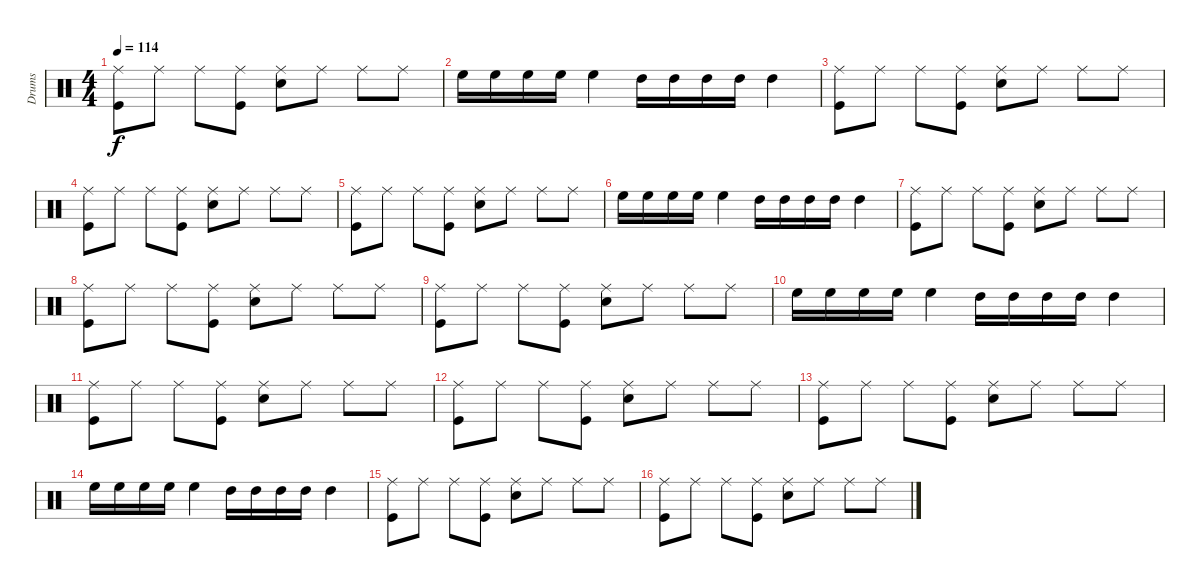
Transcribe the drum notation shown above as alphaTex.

\track ("Drums" "Drums") {instrument percussion}
\staff {score}
\articulation defaults
\ts (4 4)
\tempo 114
\clef neutral
\ks c
("Ride (middle)" "Kick (hit)").8{dy f} "Ride (middle)".8 "Ride (middle)".8 ("Ride (middle)" "Kick (hit)").8 ("Ride (middle)" "Snare (hit) 2").8 "Ride (middle)".8 "Ride (middle)".8 "Ride (middle)".8 |
"High Floor Tom (hit)".16 "High Floor Tom (hit)".16 "High Floor Tom (hit)".16 "High Floor Tom (hit)".16 "High Floor Tom (hit)".4 "High Tom (hit)".16 "High Tom (hit)".16 "High Tom (hit)".16 "High Tom (hit)".16 "High Tom (hit)".4 |
("Ride (middle)" "Kick (hit)").8 "Ride (middle)".8 "Ride (middle)".8 ("Ride (middle)" "Kick (hit)").8 ("Ride (middle)" "Snare (hit) 2").8 "Ride (middle)".8 "Ride (middle)".8 "Ride (middle)".8 |
("Ride (middle)" "Kick (hit)").8 "Ride (middle)".8 "Ride (middle)".8 ("Ride (middle)" "Kick (hit)").8 ("Ride (middle)" "Snare (hit) 2").8 "Ride (middle)".8 "Ride (middle)".8 "Ride (middle)".8 |
("Ride (middle)" "Kick (hit)").8 "Ride (middle)".8 "Ride (middle)".8 ("Ride (middle)" "Kick (hit)").8 ("Ride (middle)" "Snare (hit) 2").8 "Ride (middle)".8 "Ride (middle)".8 "Ride (middle)".8 |
"High Floor Tom (hit)".16 "High Floor Tom (hit)".16 "High Floor Tom (hit)".16 "High Floor Tom (hit)".16 "High Floor Tom (hit)".4 "High Tom (hit)".16 "High Tom (hit)".16 "High Tom (hit)".16 "High Tom (hit)".16 "High Tom (hit)".4 |
("Ride (middle)" "Kick (hit)").8 "Ride (middle)".8 "Ride (middle)".8 ("Ride (middle)" "Kick (hit)").8 ("Ride (middle)" "Snare (hit) 2").8 "Ride (middle)".8 "Ride (middle)".8 "Ride (middle)".8 |
("Ride (middle)" "Kick (hit)").8 "Ride (middle)".8 "Ride (middle)".8 ("Ride (middle)" "Kick (hit)").8 ("Ride (middle)" "Snare (hit) 2").8 "Ride (middle)".8 "Ride (middle)".8 "Ride (middle)".8 |
("Ride (middle)" "Kick (hit)").8 "Ride (middle)".8 "Ride (middle)".8 ("Ride (middle)" "Kick (hit)").8 ("Ride (middle)" "Snare (hit) 2").8 "Ride (middle)".8 "Ride (middle)".8 "Ride (middle)".8 |
"High Floor Tom (hit)".16 "High Floor Tom (hit)".16 "High Floor Tom (hit)".16 "High Floor Tom (hit)".16 "High Floor Tom (hit)".4 "High Tom (hit)".16 "High Tom (hit)".16 "High Tom (hit)".16 "High Tom (hit)".16 "High Tom (hit)".4 |
("Ride (middle)" "Kick (hit)").8 "Ride (middle)".8 "Ride (middle)".8 ("Ride (middle)" "Kick (hit)").8 ("Ride (middle)" "Snare (hit) 2").8 "Ride (middle)".8 "Ride (middle)".8 "Ride (middle)".8 |
("Ride (middle)" "Kick (hit)").8 "Ride (middle)".8 "Ride (middle)".8 ("Ride (middle)" "Kick (hit)").8 ("Ride (middle)" "Snare (hit) 2").8 "Ride (middle)".8 "Ride (middle)".8 "Ride (middle)".8 |
("Ride (middle)" "Kick (hit)").8 "Ride (middle)".8 "Ride (middle)".8 ("Ride (middle)" "Kick (hit)").8 ("Ride (middle)" "Snare (hit) 2").8 "Ride (middle)".8 "Ride (middle)".8 "Ride (middle)".8 |
"High Floor Tom (hit)".16 "High Floor Tom (hit)".16 "High Floor Tom (hit)".16 "High Floor Tom (hit)".16 "High Floor Tom (hit)".4 "High Tom (hit)".16 "High Tom (hit)".16 "High Tom (hit)".16 "High Tom (hit)".16 "High Tom (hit)".4 |
("Ride (middle)" "Kick (hit)").8 "Ride (middle)".8 "Ride (middle)".8 ("Ride (middle)" "Kick (hit)").8 ("Ride (middle)" "Snare (hit) 2").8 "Ride (middle)".8 "Ride (middle)".8 "Ride (middle)".8 |
("Ride (middle)" "Kick (hit)").8 "Ride (middle)".8 "Ride (middle)".8 ("Ride (middle)" "Kick (hit)").8 ("Ride (middle)" "Snare (hit) 2").8 "Ride (middle)".8 "Ride (middle)".8 "Ride (middle)".8
